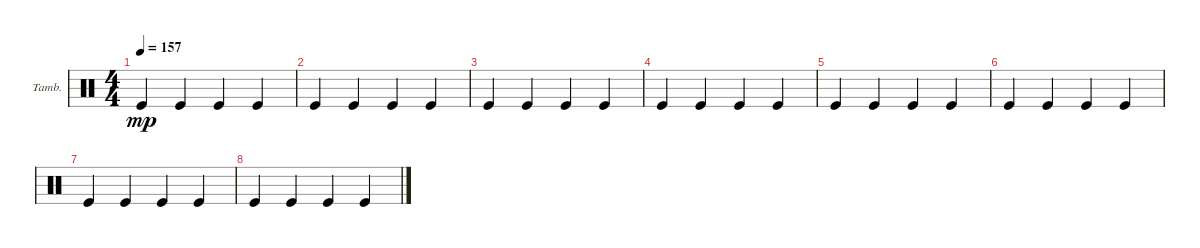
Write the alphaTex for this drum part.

\defaultSystemsLayout 4
\bracketExtendMode groupsimilarinstruments
\firstSystemTrackNameOrientation horizontal
\otherSystemsTrackNameOrientation horizontal
\track ("Tambourine" "Tamb.") {instrument percussion}
\staff {score}
\articulation defaults
\ts (4 4)
\tempo 157
\clef neutral
\scale
0.474178
\ks c "Kick (hit)".4{dy mp} "Kick (hit)".4 "Kick (hit)".4 "Kick (hit)".4
|
\scale
0.262911 "Kick (hit)".4 "Kick (hit)".4 "Kick (hit)".4 "Kick (hit)".4 |
\scale
0.262911 "Kick (hit)".4 "Kick (hit)".4 "Kick (hit)".4 "Kick (hit)".4 |
\scale
0.333333 "Kick (hit)".4 "Kick (hit)".4 "Kick (hit)".4 "Kick (hit)".4 |
\scale
0.333333 "Kick (hit)".4 "Kick (hit)".4 "Kick (hit)".4 "Kick (hit)".4 |
\scale
0.333333 "Kick (hit)".4 "Kick (hit)".4 "Kick (hit)".4 "Kick (hit)".4 |
"Kick (hit)".4 "Kick (hit)".4 "Kick (hit)".4 "Kick (hit)".4 |
"Kick (hit)".4 "Kick (hit)".4 "Kick (hit)".4 "Kick (hit)".4
